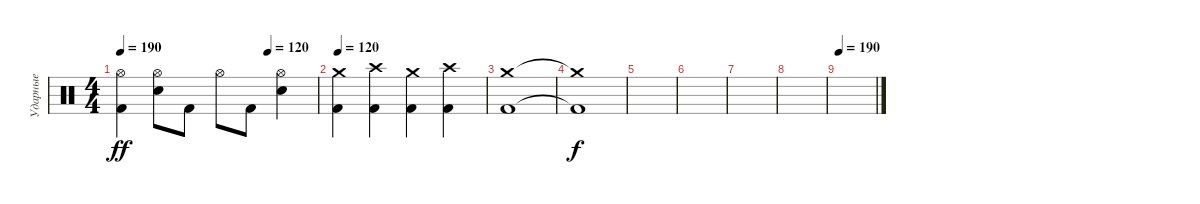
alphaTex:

\track ("Ударные" "Ударные") {instrument percussion}
\staff {score}
\articulation defaults
\ts (4 4)
\tempo 190
\tempo (120 0.75)
\clef neutral
\ks c
("Kick (hit) 2" "Hi-Hat (open)").4{dy ff} ("Electric Snare (hit)" "Hi-Hat (open)").8 "Kick (hit) 2".8 "Hi-Hat (open)".8 "Kick (hit) 2".8 ("Electric Snare (hit)" "Hi-Hat (open)").4 |
\tempo 120
("Crash medium (hit)" "Kick (hit) 2").4 ("Crash high (hit)" "Kick (hit) 2").4 ("Crash medium (hit)" "Kick (hit) 2").4 ("Crash high (hit)" "Kick (hit) 2").4 |
("Crash medium (hit)" "Kick (hit) 2").1 |
("Crash medium (hit)"{t} "Kick (hit) 2"{t}).1{dy f} |
|
|
|
|
\tempo 190
